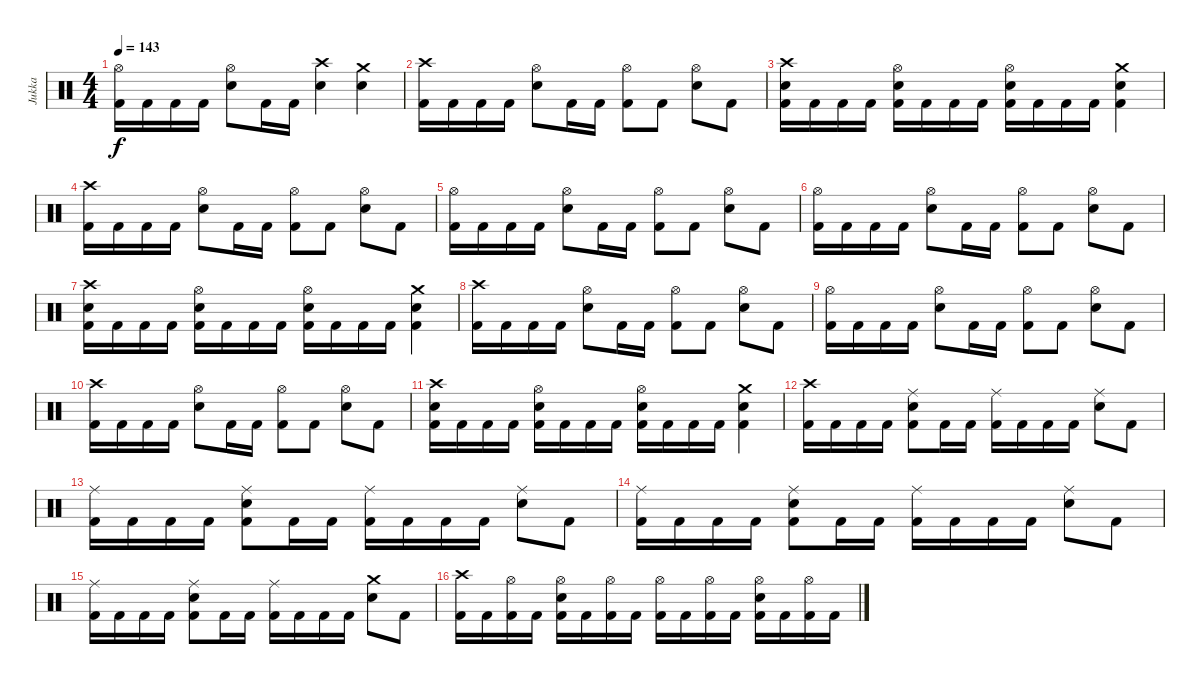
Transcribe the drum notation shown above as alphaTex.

\track ("Jukka" "Jukka") {instrument percussion}
\staff {score}
\articulation defaults
\ts (4 4)
\tempo 143
\clef neutral
\ks c
("Hi-Hat (open)" "Kick (hit) 2").16{dy f} "Kick (hit) 2".16 "Kick (hit) 2".16 "Kick (hit) 2".16 ("Hi-Hat (open)" "Electric Snare (hit)").8 "Kick (hit) 2".16 "Kick (hit) 2".16 ("Crash high (hit)" "Electric Snare (hit)").4 ("Crash medium (hit)" "Electric Snare (hit)").4 |
("Crash high (hit)" "Kick (hit) 2").16 "Kick (hit) 2".16 "Kick (hit) 2".16 "Kick (hit) 2".16 ("Hi-Hat (open)" "Electric Snare (hit)").8 "Kick (hit) 2".16 "Kick (hit) 2".16 ("Hi-Hat (open)" "Kick (hit) 2").8 "Kick (hit) 2".8 ("Hi-Hat (open)" "Electric Snare (hit)").8 "Kick (hit) 2".8 |
("Crash high (hit)" "Electric Snare (hit)" "Kick (hit) 2").16 "Kick (hit) 2".16 "Kick (hit) 2".16 "Kick (hit) 2".16 ("Hi-Hat (open)" "Electric Snare (hit)" "Kick (hit) 2").16 "Kick (hit) 2".16 "Kick (hit) 2".16 "Kick (hit) 2".16 ("Hi-Hat (open)" "Electric Snare (hit)" "Kick (hit) 2").16 "Kick (hit) 2".16 "Kick (hit) 2".16 "Kick (hit) 2".16 ("Crash medium (hit)" "Electric Snare (hit)" "Kick (hit) 2").4 |
("Crash high (hit)" "Kick (hit) 2").16 "Kick (hit) 2".16 "Kick (hit) 2".16 "Kick (hit) 2".16 ("Hi-Hat (open)" "Electric Snare (hit)").8 "Kick (hit) 2".16 "Kick (hit) 2".16 ("Hi-Hat (open)" "Kick (hit) 2").8 "Kick (hit) 2".8 ("Hi-Hat (open)" "Electric Snare (hit)").8 "Kick (hit) 2".8 |
("Hi-Hat (open)" "Kick (hit) 2").16 "Kick (hit) 2".16 "Kick (hit) 2".16 "Kick (hit) 2".16 ("Hi-Hat (open)" "Electric Snare (hit)").8 "Kick (hit) 2".16 "Kick (hit) 2".16 ("Hi-Hat (open)" "Kick (hit) 2").8 "Kick (hit) 2".8 ("Hi-Hat (open)" "Electric Snare (hit)").8 "Kick (hit) 2".8 |
("Hi-Hat (open)" "Kick (hit) 2").16 "Kick (hit) 2".16 "Kick (hit) 2".16 "Kick (hit) 2".16 ("Hi-Hat (open)" "Electric Snare (hit)").8 "Kick (hit) 2".16 "Kick (hit) 2".16 ("Hi-Hat (open)" "Kick (hit) 2").8 "Kick (hit) 2".8 ("Hi-Hat (open)" "Electric Snare (hit)").8 "Kick (hit) 2".8 |
("Crash high (hit)" "Electric Snare (hit)" "Kick (hit) 2").16 "Kick (hit) 2".16 "Kick (hit) 2".16 "Kick (hit) 2".16 ("Hi-Hat (open)" "Electric Snare (hit)" "Kick (hit) 2").16 "Kick (hit) 2".16 "Kick (hit) 2".16 "Kick (hit) 2".16 ("Hi-Hat (open)" "Electric Snare (hit)" "Kick (hit) 2").16 "Kick (hit) 2".16 "Kick (hit) 2".16 "Kick (hit) 2".16 ("Crash medium (hit)" "Electric Snare (hit)" "Kick (hit) 2").4 |
("Crash high (hit)" "Kick (hit) 2").16 "Kick (hit) 2".16 "Kick (hit) 2".16 "Kick (hit) 2".16 ("Hi-Hat (open)" "Electric Snare (hit)").8 "Kick (hit) 2".16 "Kick (hit) 2".16 ("Hi-Hat (open)" "Kick (hit) 2").8 "Kick (hit) 2".8 ("Hi-Hat (open)" "Electric Snare (hit)").8 "Kick (hit) 2".8 |
("Hi-Hat (open)" "Kick (hit) 2").16 "Kick (hit) 2".16 "Kick (hit) 2".16 "Kick (hit) 2".16 ("Hi-Hat (open)" "Electric Snare (hit)").8 "Kick (hit) 2".16 "Kick (hit) 2".16 ("Hi-Hat (open)" "Kick (hit) 2").8 "Kick (hit) 2".8 ("Hi-Hat (open)" "Electric Snare (hit)").8 "Kick (hit) 2".8 |
("Crash high (hit)" "Kick (hit) 2").16 "Kick (hit) 2".16 "Kick (hit) 2".16 "Kick (hit) 2".16 ("Hi-Hat (open)" "Electric Snare (hit)").8 "Kick (hit) 2".16 "Kick (hit) 2".16 ("Hi-Hat (open)" "Kick (hit) 2").8 "Kick (hit) 2".8 ("Hi-Hat (open)" "Electric Snare (hit)").8 "Kick (hit) 2".8 |
("Crash high (hit)" "Electric Snare (hit)" "Kick (hit) 2").16 "Kick (hit) 2".16 "Kick (hit) 2".16 "Kick (hit) 2".16 ("Hi-Hat (open)" "Electric Snare (hit)" "Kick (hit) 2").16 "Kick (hit) 2".16 "Kick (hit) 2".16 "Kick (hit) 2".16 ("Hi-Hat (open)" "Electric Snare (hit)" "Kick (hit) 2").16 "Kick (hit) 2".16 "Kick (hit) 2".16 "Kick (hit) 2".16 ("Crash medium (hit)" "Electric Snare (hit)" "Kick (hit) 2").4 |
("Crash high (hit)" "Kick (hit) 2").16 "Kick (hit) 2".16 "Kick (hit) 2".16 "Kick (hit) 2".16 ("Ride (middle)" "Electric Snare (hit)" "Kick (hit) 2").8 "Kick (hit) 2".16 "Kick (hit) 2".16 ("Ride (middle)" "Kick (hit) 2").16 "Kick (hit) 2".16 "Kick (hit) 2".16 "Kick (hit) 2".16 ("Ride (middle)" "Electric Snare (hit)").8 "Kick (hit) 2".8 |
("Ride (middle)" "Kick (hit) 2").16 "Kick (hit) 2".16 "Kick (hit) 2".16 "Kick (hit) 2".16 ("Ride (middle)" "Electric Snare (hit)" "Kick (hit) 2").8 "Kick (hit) 2".16 "Kick (hit) 2".16 ("Ride (middle)" "Kick (hit) 2").16 "Kick (hit) 2".16 "Kick (hit) 2".16 "Kick (hit) 2".16 ("Ride (middle)" "Electric Snare (hit)").8 "Kick (hit) 2".8 |
("Ride (middle)" "Kick (hit) 2").16 "Kick (hit) 2".16 "Kick (hit) 2".16 "Kick (hit) 2".16 ("Ride (middle)" "Electric Snare (hit)" "Kick (hit) 2").8 "Kick (hit) 2".16 "Kick (hit) 2".16 ("Ride (middle)" "Kick (hit) 2").16 "Kick (hit) 2".16 "Kick (hit) 2".16 "Kick (hit) 2".16 ("Ride (middle)" "Electric Snare (hit)").8 "Kick (hit) 2".8 |
("Ride (middle)" "Kick (hit) 2").16 "Kick (hit) 2".16 "Kick (hit) 2".16 "Kick (hit) 2".16 ("Ride (middle)" "Electric Snare (hit)" "Kick (hit) 2").8 "Kick (hit) 2".16 "Kick (hit) 2".16 ("Ride (middle)" "Kick (hit) 2").16 "Kick (hit) 2".16 "Kick (hit) 2".16 "Kick (hit) 2".16 ("Crash medium (hit)" "Electric Snare (hit)").8 "Kick (hit) 2".8 |
("Crash high (hit)" "Kick (hit) 2").16 "Kick (hit) 2".16 ("Hi-Hat (open)" "Kick (hit) 2").16 "Kick (hit) 2".16 ("Hi-Hat (open)" "Electric Snare (hit)" "Kick (hit) 2").16 "Kick (hit) 2".16 ("Hi-Hat (open)" "Kick (hit) 2").16 "Kick (hit) 2".16 ("Hi-Hat (open)" "Kick (hit) 2").16 "Kick (hit) 2".16 ("Hi-Hat (open)" "Kick (hit) 2").16 "Kick (hit) 2".16 ("Hi-Hat (open)" "Electric Snare (hit)" "Kick (hit) 2").16 "Kick (hit) 2".16 ("Hi-Hat (open)" "Kick (hit) 2").16 "Kick (hit) 2".16
